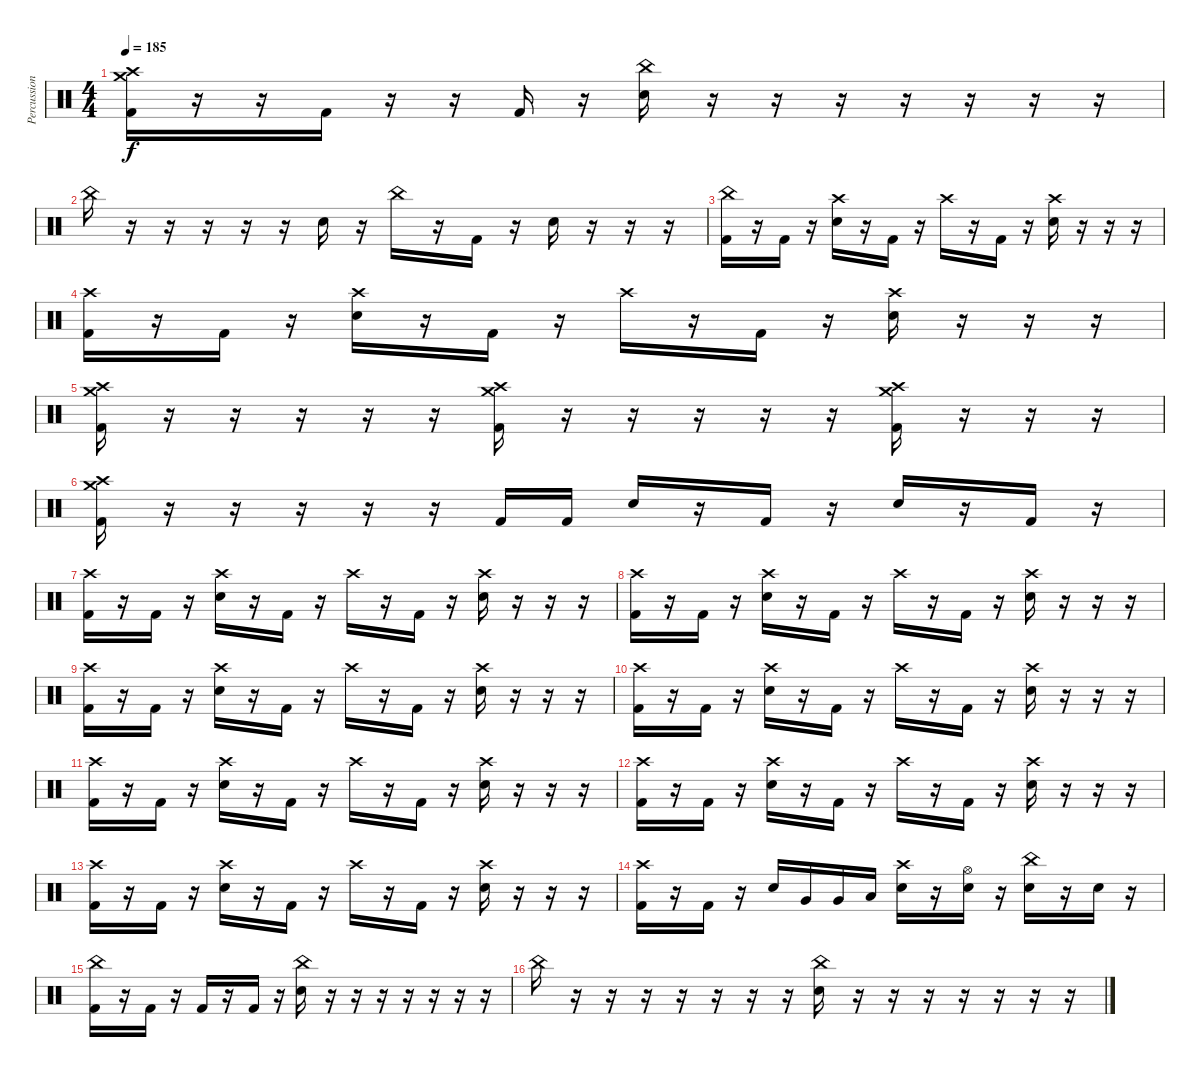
\track ("Percussion" "Percussion") {instrument percussion}
\staff {score}
\articulation defaults
\ts (4 4)
\tempo 185
\clef neutral
\ks c
("Crash medium (hit)" "Crash high (hit)" "Kick (hit) 2").16{dy f} r.16 r.16 "Kick (hit) 2".16 r.16 r.16 "Kick (hit) 2".16 r.16 ("China (hit)" "Electric Snare (hit)").16 r.16 r.16 r.16 r.16 r.16 r.16 r.16 |
"China (hit)".16 r.16 r.16 r.16 r.16 r.16 "Electric Snare (hit)".16 r.16 "China (hit)".16 r.16 "Kick (hit) 2".16 r.16 "Electric Snare (hit)".16 r.16 r.16 r.16 |
("China (hit)" "Kick (hit) 2").16 r.16 "Kick (hit) 2".16 r.16 ("Crash high (hit)" "Electric Snare (hit)").16 r.16 "Kick (hit) 2".16 r.16 "Crash high (hit)".16 r.16 "Kick (hit) 2".16 r.16 ("Crash high (hit)" "Electric Snare (hit)").16 r.16 r.16 r.16 |
("Crash high (hit)" "Kick (hit) 2").16 r.16 "Kick (hit) 2".16 r.16 ("Crash high (hit)" "Electric Snare (hit)").16 r.16 "Kick (hit) 2".16 r.16 "Crash high (hit)".16 r.16 "Kick (hit) 2".16 r.16 ("Crash high (hit)" "Electric Snare (hit)").16 r.16 r.16 r.16 |
("Crash high (hit)" "Crash medium (hit)" "Kick (hit) 2").16 r.16 r.16 r.16 r.16 r.16 ("Crash high (hit)" "Crash medium (hit)" "Kick (hit) 2").16 r.16 r.16 r.16 r.16 r.16 ("Crash high (hit)" "Crash medium (hit)" "Kick (hit) 2").16 r.16 r.16 r.16 |
("Crash high (hit)" "Crash medium (hit)" "Kick (hit) 2").16 r.16 r.16 r.16 r.16 r.16 "Kick (hit) 2".16 "Kick (hit) 2".16 "Electric Snare (hit)".16 r.16 "Kick (hit) 2".16 r.16 "Electric Snare (hit)".16 r.16 "Kick (hit) 2".16 r.16 |
("Crash high (hit)" "Kick (hit) 2").16 r.16 "Kick (hit) 2".16 r.16 ("Crash high (hit)" "Electric Snare (hit)").16 r.16 "Kick (hit) 2".16 r.16 "Crash high (hit)".16 r.16 "Kick (hit) 2".16 r.16 ("Crash high (hit)" "Electric Snare (hit)").16 r.16 r.16 r.16 |
("Crash high (hit)" "Kick (hit) 2").16 r.16 "Kick (hit) 2".16 r.16 ("Crash high (hit)" "Electric Snare (hit)").16 r.16 "Kick (hit) 2".16 r.16 "Crash high (hit)".16 r.16 "Kick (hit) 2".16 r.16 ("Crash high (hit)" "Electric Snare (hit)").16 r.16 r.16 r.16 |
("Crash high (hit)" "Kick (hit) 2").16 r.16 "Kick (hit) 2".16 r.16 ("Crash high (hit)" "Electric Snare (hit)").16 r.16 "Kick (hit) 2".16 r.16 "Crash high (hit)".16 r.16 "Kick (hit) 2".16 r.16 ("Crash high (hit)" "Electric Snare (hit)").16 r.16 r.16 r.16 |
("Crash high (hit)" "Kick (hit) 2").16 r.16 "Kick (hit) 2".16 r.16 ("Crash high (hit)" "Electric Snare (hit)").16 r.16 "Kick (hit) 2".16 r.16 "Crash high (hit)".16 r.16 "Kick (hit) 2".16 r.16 ("Crash high (hit)" "Electric Snare (hit)").16 r.16 r.16 r.16 |
("Crash high (hit)" "Kick (hit) 2").16 r.16 "Kick (hit) 2".16 r.16 ("Crash high (hit)" "Electric Snare (hit)").16 r.16 "Kick (hit) 2".16 r.16 "Crash high (hit)".16 r.16 "Kick (hit) 2".16 r.16 ("Crash high (hit)" "Electric Snare (hit)").16 r.16 r.16 r.16 |
("Crash high (hit)" "Kick (hit) 2").16 r.16 "Kick (hit) 2".16 r.16 ("Crash high (hit)" "Electric Snare (hit)").16 r.16 "Kick (hit) 2".16 r.16 "Crash high (hit)".16 r.16 "Kick (hit) 2".16 r.16 ("Crash high (hit)" "Electric Snare (hit)").16 r.16 r.16 r.16 |
("Crash high (hit)" "Kick (hit) 2").16 r.16 "Kick (hit) 2".16 r.16 ("Crash high (hit)" "Electric Snare (hit)").16 r.16 "Kick (hit) 2".16 r.16 "Crash high (hit)".16 r.16 "Kick (hit) 2".16 r.16 ("Crash high (hit)" "Electric Snare (hit)").16 r.16 r.16 r.16 |
("Crash high (hit)" "Kick (hit) 2").16 r.16 "Kick (hit) 2".16 r.16 "Electric Snare (hit)".16 "Very Low Tom (hit)".16 "Very Low Tom (hit)".16 "Low Floor Tom (hit)".16 ("Crash high (hit)" "Electric Snare (hit)").16 r.16 ("Hi-Hat (open)" "Electric Snare (hit)").16 r.16 ("China (hit)" "Electric Snare (hit)").16 r.16 "Electric Snare (hit)".16 r.16 |
("China (hit)" "Kick (hit) 2").16 r.16 "Kick (hit) 2".16 r.16 "Kick (hit) 2".16 r.16 "Kick (hit) 2".16 r.16 ("China (hit)" "Electric Snare (hit)").16 r.16 r.16 r.16 r.16 r.16 r.16 r.16 |
"China (hit)".16 r.16 r.16 r.16 r.16 r.16 r.16 r.16 ("China (hit)" "Electric Snare (hit)").16 r.16 r.16 r.16 r.16 r.16 r.16 r.16
